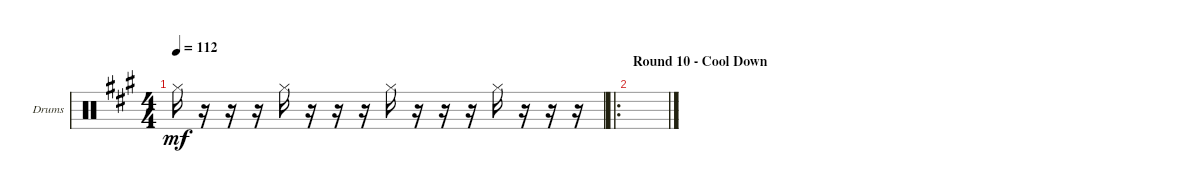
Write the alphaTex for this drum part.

\defaultSystemsLayout 4
\bracketExtendMode groupsimilarinstruments
\firstSystemTrackNameOrientation horizontal
\otherSystemsTrackNameOrientation horizontal
\track ("Drumkit" "Drums") {instrument percussion}
\staff {score}
\articulation defaults
\ts (4 4)
\tempo 112
\clef neutral
\scale
0.301587
\ks a "Hi-Hat (closed)".16{dy mf}
r.16 r.16 r.16 "Hi-Hat (closed)".16 r.16 r.16 r.16 "Hi-Hat (closed)".16 r.16 r.16 r.16 "Hi-Hat (closed)".16 r.16 r.16 r.16 |
\ro
\section ("" "Round 10 - Cool Down")
\tempo (112 hide)
\scale
0.365079 |
\scale
0.333333 |
\scale
0.333333 |
\scale
0.333333 |
\scale
0.333333 |
\scale
0.333333 |
\scale
0.333333 |
\scale
0.333333 |
\scale
0.333333 |
\scale
0.333333 |
\scale
0.333333 |
\scale
0.333333 |
\scale
0.333333 |
\scale
0.333333 |
\scale
0.333333
